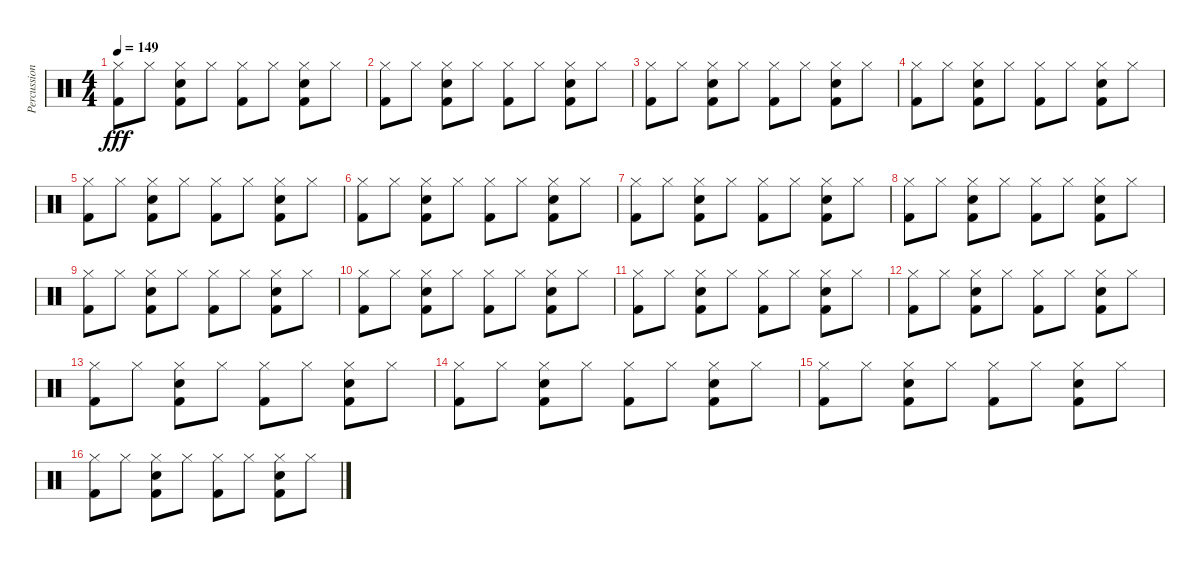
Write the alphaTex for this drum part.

\track ("Percussion" "Percussion") {instrument percussion}
\staff {score}
\articulation defaults
\ts (4 4)
\tempo 149
\clef neutral
\ks c
("Hi-Hat (closed)" "Kick (hit) 2").8{dy fff} "Hi-Hat (closed)".8 ("Hi-Hat (closed)" "Snare (hit) 2" "Kick (hit) 2").8 "Hi-Hat (closed)".8 ("Hi-Hat (closed)" "Kick (hit) 2").8 "Hi-Hat (closed)".8 ("Hi-Hat (closed)" "Snare (hit) 2" "Kick (hit) 2").8 "Hi-Hat (closed)".8 |
("Hi-Hat (closed)" "Kick (hit) 2").8 "Hi-Hat (closed)".8 ("Hi-Hat (closed)" "Snare (hit) 2" "Kick (hit) 2").8 "Hi-Hat (closed)".8 ("Hi-Hat (closed)" "Kick (hit) 2").8 "Hi-Hat (closed)".8 ("Hi-Hat (closed)" "Snare (hit) 2" "Kick (hit) 2").8 "Hi-Hat (closed)".8 |
("Hi-Hat (closed)" "Kick (hit) 2").8 "Hi-Hat (closed)".8 ("Hi-Hat (closed)" "Snare (hit) 2" "Kick (hit) 2").8 "Hi-Hat (closed)".8 ("Hi-Hat (closed)" "Kick (hit) 2").8 "Hi-Hat (closed)".8 ("Hi-Hat (closed)" "Snare (hit) 2" "Kick (hit) 2").8 "Hi-Hat (closed)".8 |
("Hi-Hat (closed)" "Kick (hit) 2").8 "Hi-Hat (closed)".8 ("Hi-Hat (closed)" "Snare (hit) 2" "Kick (hit) 2").8 "Hi-Hat (closed)".8 ("Hi-Hat (closed)" "Kick (hit) 2").8 "Hi-Hat (closed)".8 ("Hi-Hat (closed)" "Snare (hit) 2" "Kick (hit) 2").8 "Hi-Hat (closed)".8 |
("Hi-Hat (closed)" "Kick (hit) 2").8 "Hi-Hat (closed)".8 ("Hi-Hat (closed)" "Snare (hit) 2" "Kick (hit) 2").8 "Hi-Hat (closed)".8 ("Hi-Hat (closed)" "Kick (hit) 2").8 "Hi-Hat (closed)".8 ("Hi-Hat (closed)" "Snare (hit) 2" "Kick (hit) 2").8 "Hi-Hat (closed)".8 |
("Hi-Hat (closed)" "Kick (hit) 2").8 "Hi-Hat (closed)".8 ("Hi-Hat (closed)" "Snare (hit) 2" "Kick (hit) 2").8 "Hi-Hat (closed)".8 ("Hi-Hat (closed)" "Kick (hit) 2").8 "Hi-Hat (closed)".8 ("Hi-Hat (closed)" "Snare (hit) 2" "Kick (hit) 2").8 "Hi-Hat (closed)".8 |
("Hi-Hat (closed)" "Kick (hit) 2").8 "Hi-Hat (closed)".8 ("Hi-Hat (closed)" "Snare (hit) 2" "Kick (hit) 2").8 "Hi-Hat (closed)".8 ("Hi-Hat (closed)" "Kick (hit) 2").8 "Hi-Hat (closed)".8 ("Hi-Hat (closed)" "Snare (hit) 2" "Kick (hit) 2").8 "Hi-Hat (closed)".8 |
("Hi-Hat (closed)" "Kick (hit) 2").8 "Hi-Hat (closed)".8 ("Hi-Hat (closed)" "Snare (hit) 2" "Kick (hit) 2").8 "Hi-Hat (closed)".8 ("Hi-Hat (closed)" "Kick (hit) 2").8 "Hi-Hat (closed)".8 ("Hi-Hat (closed)" "Snare (hit) 2" "Kick (hit) 2").8 "Hi-Hat (closed)".8 |
("Hi-Hat (closed)" "Kick (hit) 2").8 "Hi-Hat (closed)".8 ("Hi-Hat (closed)" "Snare (hit) 2" "Kick (hit) 2").8 "Hi-Hat (closed)".8 ("Hi-Hat (closed)" "Kick (hit) 2").8 "Hi-Hat (closed)".8 ("Hi-Hat (closed)" "Snare (hit) 2" "Kick (hit) 2").8 "Hi-Hat (closed)".8 |
("Hi-Hat (closed)" "Kick (hit) 2").8 "Hi-Hat (closed)".8 ("Hi-Hat (closed)" "Snare (hit) 2" "Kick (hit) 2").8 "Hi-Hat (closed)".8 ("Hi-Hat (closed)" "Kick (hit) 2").8 "Hi-Hat (closed)".8 ("Hi-Hat (closed)" "Snare (hit) 2" "Kick (hit) 2").8 "Hi-Hat (closed)".8 |
("Hi-Hat (closed)" "Kick (hit) 2").8 "Hi-Hat (closed)".8 ("Hi-Hat (closed)" "Snare (hit) 2" "Kick (hit) 2").8 "Hi-Hat (closed)".8 ("Hi-Hat (closed)" "Kick (hit) 2").8 "Hi-Hat (closed)".8 ("Hi-Hat (closed)" "Snare (hit) 2" "Kick (hit) 2").8 "Hi-Hat (closed)".8 |
("Hi-Hat (closed)" "Kick (hit) 2").8 "Hi-Hat (closed)".8 ("Hi-Hat (closed)" "Snare (hit) 2" "Kick (hit) 2").8 "Hi-Hat (closed)".8 ("Hi-Hat (closed)" "Kick (hit) 2").8 "Hi-Hat (closed)".8 ("Hi-Hat (closed)" "Snare (hit) 2" "Kick (hit) 2").8 "Hi-Hat (closed)".8 |
("Hi-Hat (closed)" "Kick (hit) 2").8 "Hi-Hat (closed)".8 ("Hi-Hat (closed)" "Snare (hit) 2" "Kick (hit) 2").8 "Hi-Hat (closed)".8 ("Hi-Hat (closed)" "Kick (hit) 2").8 "Hi-Hat (closed)".8 ("Hi-Hat (closed)" "Snare (hit) 2" "Kick (hit) 2").8 "Hi-Hat (closed)".8 |
("Hi-Hat (closed)" "Kick (hit) 2").8 "Hi-Hat (closed)".8 ("Hi-Hat (closed)" "Snare (hit) 2" "Kick (hit) 2").8 "Hi-Hat (closed)".8 ("Hi-Hat (closed)" "Kick (hit) 2").8 "Hi-Hat (closed)".8 ("Hi-Hat (closed)" "Snare (hit) 2" "Kick (hit) 2").8 "Hi-Hat (closed)".8 |
("Hi-Hat (closed)" "Kick (hit) 2").8 "Hi-Hat (closed)".8 ("Hi-Hat (closed)" "Snare (hit) 2" "Kick (hit) 2").8 "Hi-Hat (closed)".8 ("Hi-Hat (closed)" "Kick (hit) 2").8 "Hi-Hat (closed)".8 ("Hi-Hat (closed)" "Snare (hit) 2" "Kick (hit) 2").8 "Hi-Hat (closed)".8 |
("Hi-Hat (closed)" "Kick (hit) 2").8 "Hi-Hat (closed)".8 ("Hi-Hat (closed)" "Snare (hit) 2" "Kick (hit) 2").8 "Hi-Hat (closed)".8 ("Hi-Hat (closed)" "Kick (hit) 2").8 "Hi-Hat (closed)".8 ("Hi-Hat (closed)" "Snare (hit) 2" "Kick (hit) 2").8 "Hi-Hat (closed)".8
